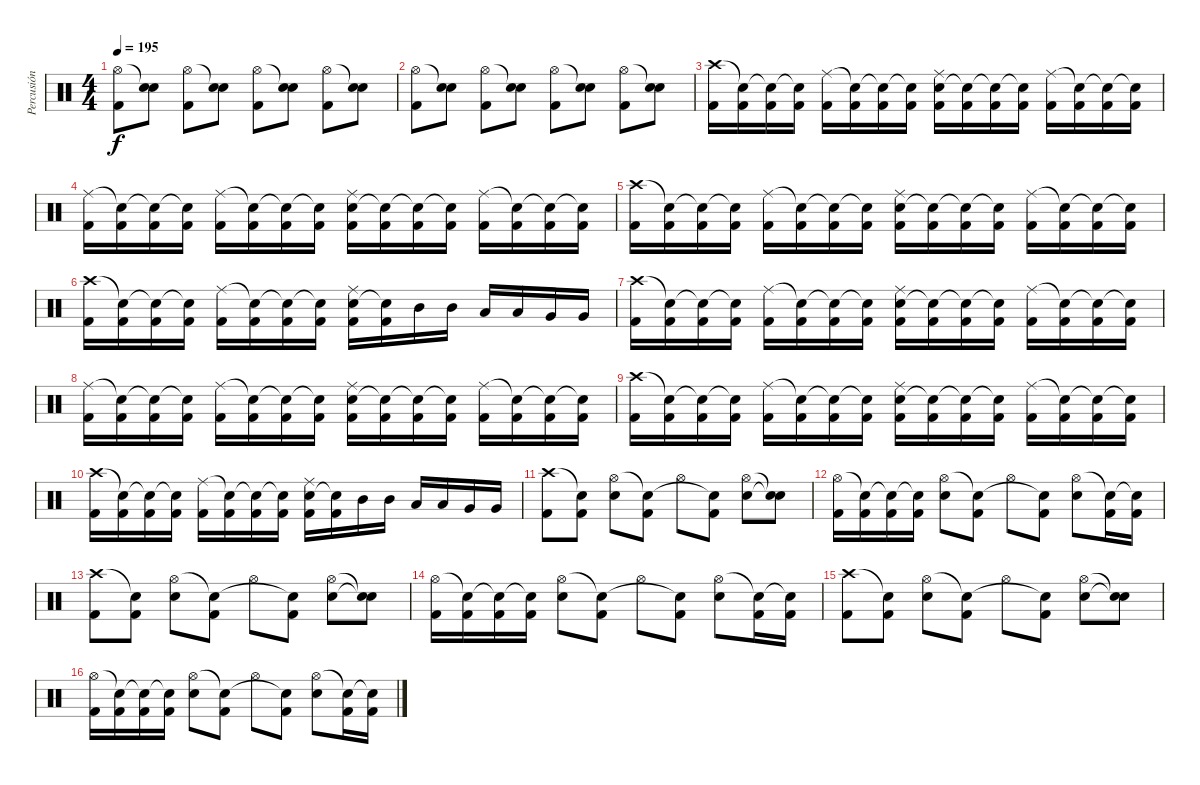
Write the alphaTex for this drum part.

\track ("Percusión" "Percusión") {instrument percussion}
\staff {score}
\articulation defaults
\ts (4 4)
\tempo 195
\clef neutral
\ks c
("Kick (hit) 2" "Hi-Hat (open)").8{dy f} ("Snare (hit) 2" "Snare (hit)"{t}).8 ("Kick (hit) 2" "Hi-Hat (open)").8 ("Snare (hit) 2" "Snare (hit)"{t}).8 ("Kick (hit) 2" "Hi-Hat (open)").8 ("Snare (hit) 2" "Snare (hit)"{t}).8 ("Kick (hit) 2" "Hi-Hat (open)").8 ("Snare (hit) 2" "Snare (hit)"{t}).8 |
("Kick (hit) 2" "Hi-Hat (open)").8 ("Snare (hit) 2" "Snare (hit)"{t}).8 ("Kick (hit) 2" "Hi-Hat (open)").8 ("Snare (hit) 2" "Snare (hit)"{t}).8 ("Kick (hit) 2" "Hi-Hat (open)").8 ("Snare (hit) 2" "Snare (hit)"{t}).8 ("Kick (hit) 2" "Hi-Hat (open)").8 ("Snare (hit) 2" "Snare (hit)"{t}).8 |
("Kick (hit) 2" "Crash high (hit)").16 ("Kick (hit) 2" "Snare (hit)"{t}).16 ("Kick (hit) 2" "Snare (hit)"{t}).16 ("Kick (hit) 2" "Snare (hit)"{t}).16 ("Kick (hit) 2" "Ride (middle)").16 ("Kick (hit) 2" "Snare (hit)"{t}).16 ("Kick (hit) 2" "Snare (hit)"{t}).16 ("Kick (hit) 2" "Snare (hit)"{t}).16 ("Kick (hit) 2" "Snare (hit) 2" "Ride (middle)").16 ("Kick (hit) 2" "Snare (hit)"{t}).16 ("Kick (hit) 2" "Snare (hit)"{t}).16 ("Kick (hit) 2" "Snare (hit)"{t}).16 ("Kick (hit) 2" "Ride (middle)").16 ("Kick (hit) 2" "Snare (hit)"{t}).16 ("Kick (hit) 2" "Snare (hit)"{t}).16 ("Kick (hit) 2" "Snare (hit)"{t}).16 |
("Kick (hit) 2" "Ride (middle)").16 ("Kick (hit) 2" "Snare (hit)"{t}).16 ("Kick (hit) 2" "Snare (hit)"{t}).16 ("Kick (hit) 2" "Snare (hit)"{t}).16 ("Kick (hit) 2" "Ride (middle)").16 ("Kick (hit) 2" "Snare (hit)"{t}).16 ("Kick (hit) 2" "Snare (hit)"{t}).16 ("Kick (hit) 2" "Snare (hit)"{t}).16 ("Kick (hit) 2" "Snare (hit) 2" "Ride (middle)").16 ("Kick (hit) 2" "Snare (hit)"{t}).16 ("Kick (hit) 2" "Snare (hit)"{t}).16 ("Kick (hit) 2" "Snare (hit)"{t}).16 ("Kick (hit) 2" "Ride (middle)").16 ("Kick (hit) 2" "Snare (hit)"{t}).16 ("Kick (hit) 2" "Snare (hit)"{t}).16 ("Kick (hit) 2" "Snare (hit)"{t}).16 |
("Kick (hit) 2" "Crash high (hit)").16 ("Kick (hit) 2" "Snare (hit)"{t}).16 ("Kick (hit) 2" "Snare (hit)"{t}).16 ("Kick (hit) 2" "Snare (hit)"{t}).16 ("Kick (hit) 2" "Ride (middle)").16 ("Kick (hit) 2" "Snare (hit)"{t}).16 ("Kick (hit) 2" "Snare (hit)"{t}).16 ("Kick (hit) 2" "Snare (hit)"{t}).16 ("Kick (hit) 2" "Snare (hit) 2" "Ride (middle)").16 ("Kick (hit) 2" "Snare (hit)"{t}).16 ("Kick (hit) 2" "Snare (hit)"{t}).16 ("Kick (hit) 2" "Snare (hit)"{t}).16 ("Kick (hit) 2" "Ride (middle)").16 ("Kick (hit) 2" "Snare (hit)"{t}).16 ("Kick (hit) 2" "Snare (hit)"{t}).16 ("Kick (hit) 2" "Snare (hit)"{t}).16 |
("Kick (hit) 2" "Crash high (hit)").16 ("Kick (hit) 2" "Snare (hit)"{t}).16 ("Kick (hit) 2" "Snare (hit)"{t}).16 ("Kick (hit) 2" "Snare (hit)"{t}).16 ("Kick (hit) 2" "Ride (middle)").16 ("Kick (hit) 2" "Snare (hit)"{t}).16 ("Kick (hit) 2" "Snare (hit)"{t}).16 ("Kick (hit) 2" "Snare (hit)"{t}).16 ("Kick (hit) 2" "Snare (hit) 2" "Ride (middle)").16 ("Kick (hit) 2" "Snare (hit)"{t}).16 "Mid Tom (hit)".16 "Mid Tom (hit)".16 "Low Tom (hit)".16 "Low Tom (hit)".16 "Very Low Tom (hit)".16 "Very Low Tom (hit)".16 |
("Kick (hit) 2" "Crash high (hit)").16 ("Kick (hit) 2" "Snare (hit)"{t}).16 ("Kick (hit) 2" "Snare (hit)"{t}).16 ("Kick (hit) 2" "Snare (hit)"{t}).16 ("Kick (hit) 2" "Ride (middle)").16 ("Kick (hit) 2" "Snare (hit)"{t}).16 ("Kick (hit) 2" "Snare (hit)"{t}).16 ("Kick (hit) 2" "Snare (hit)"{t}).16 ("Kick (hit) 2" "Snare (hit) 2" "Ride (middle)").16 ("Kick (hit) 2" "Snare (hit)"{t}).16 ("Kick (hit) 2" "Snare (hit)"{t}).16 ("Kick (hit) 2" "Snare (hit)"{t}).16 ("Kick (hit) 2" "Ride (middle)").16 ("Kick (hit) 2" "Snare (hit)"{t}).16 ("Kick (hit) 2" "Snare (hit)"{t}).16 ("Kick (hit) 2" "Snare (hit)"{t}).16 |
("Kick (hit) 2" "Ride (middle)").16 ("Kick (hit) 2" "Snare (hit)"{t}).16 ("Kick (hit) 2" "Snare (hit)"{t}).16 ("Kick (hit) 2" "Snare (hit)"{t}).16 ("Kick (hit) 2" "Ride (middle)").16 ("Kick (hit) 2" "Snare (hit)"{t}).16 ("Kick (hit) 2" "Snare (hit)"{t}).16 ("Kick (hit) 2" "Snare (hit)"{t}).16 ("Kick (hit) 2" "Snare (hit) 2" "Ride (middle)").16 ("Kick (hit) 2" "Snare (hit)"{t}).16 ("Kick (hit) 2" "Snare (hit)"{t}).16 ("Kick (hit) 2" "Snare (hit)"{t}).16 ("Kick (hit) 2" "Ride (middle)").16 ("Kick (hit) 2" "Snare (hit)"{t}).16 ("Kick (hit) 2" "Snare (hit)"{t}).16 ("Kick (hit) 2" "Snare (hit)"{t}).16 |
("Kick (hit) 2" "Crash high (hit)").16 ("Kick (hit) 2" "Snare (hit)"{t}).16 ("Kick (hit) 2" "Snare (hit)"{t}).16 ("Kick (hit) 2" "Snare (hit)"{t}).16 ("Kick (hit) 2" "Ride (middle)").16 ("Kick (hit) 2" "Snare (hit)"{t}).16 ("Kick (hit) 2" "Snare (hit)"{t}).16 ("Kick (hit) 2" "Snare (hit)"{t}).16 ("Kick (hit) 2" "Snare (hit) 2" "Ride (middle)").16 ("Kick (hit) 2" "Snare (hit)"{t}).16 ("Kick (hit) 2" "Snare (hit)"{t}).16 ("Kick (hit) 2" "Snare (hit)"{t}).16 ("Kick (hit) 2" "Ride (middle)").16 ("Kick (hit) 2" "Snare (hit)"{t}).16 ("Kick (hit) 2" "Snare (hit)"{t}).16 ("Kick (hit) 2" "Snare (hit)"{t}).16 |
("Kick (hit) 2" "Crash high (hit)").16 ("Kick (hit) 2" "Snare (hit)"{t}).16 ("Kick (hit) 2" "Snare (hit)"{t}).16 ("Kick (hit) 2" "Snare (hit)"{t}).16 ("Kick (hit) 2" "Ride (middle)").16 ("Kick (hit) 2" "Snare (hit)"{t}).16 ("Kick (hit) 2" "Snare (hit)"{t}).16 ("Kick (hit) 2" "Snare (hit)"{t}).16 ("Kick (hit) 2" "Snare (hit) 2" "Ride (middle)").16 ("Kick (hit) 2" "Snare (hit)"{t}).16 "Mid Tom (hit)".16 "Mid Tom (hit)".16 "Low Tom (hit)".16 "Low Tom (hit)".16 "Very Low Tom (hit)".16 "Very Low Tom (hit)".16 |
("Kick (hit) 2" "Crash high (hit)").8 ("Kick (hit) 2" "Snare (hit)"{t}).8 ("Snare (hit) 2" "Hi-Hat (open)").8 ("Kick (hit) 2" "Snare (hit)"{t}).8 "Hi-Hat (open)".8 ("Kick (hit) 2" "Snare (hit)"{t}).8 ("Snare (hit) 2" "Hi-Hat (open)").8 ("Snare (hit)"{t} "Snare (hit)"{t}).8 |
("Kick (hit) 2" "Hi-Hat (open)").16 ("Kick (hit) 2" "Snare (hit)"{t}).16 ("Kick (hit) 2" "Snare (hit)"{t}).16 ("Kick (hit) 2" "Snare (hit)"{t}).16 ("Snare (hit) 2" "Hi-Hat (open)").8 ("Kick (hit) 2" "Snare (hit)"{t}).8 "Hi-Hat (open)".8 ("Kick (hit) 2" "Snare (hit)"{t}).8 ("Snare (hit) 2" "Hi-Hat (open)").8 ("Kick (hit) 2" "Snare (hit)"{t}).16 ("Kick (hit) 2" "Snare (hit)"{t}).16 |
("Kick (hit) 2" "Crash high (hit)").8 ("Kick (hit) 2" "Snare (hit)"{t}).8 ("Snare (hit) 2" "Hi-Hat (open)").8 ("Kick (hit) 2" "Snare (hit)"{t}).8 "Hi-Hat (open)".8 ("Kick (hit) 2" "Snare (hit)"{t}).8 ("Snare (hit) 2" "Hi-Hat (open)").8 ("Snare (hit)"{t} "Snare (hit)"{t}).8 |
("Kick (hit) 2" "Hi-Hat (open)").16 ("Kick (hit) 2" "Snare (hit)"{t}).16 ("Kick (hit) 2" "Snare (hit)"{t}).16 ("Kick (hit) 2" "Snare (hit)"{t}).16 ("Snare (hit) 2" "Hi-Hat (open)").8 ("Kick (hit) 2" "Snare (hit)"{t}).8 "Hi-Hat (open)".8 ("Kick (hit) 2" "Snare (hit)"{t}).8 ("Snare (hit) 2" "Hi-Hat (open)").8 ("Kick (hit) 2" "Snare (hit)"{t}).16 ("Kick (hit) 2" "Snare (hit)"{t}).16 |
("Kick (hit) 2" "Crash high (hit)").8 ("Kick (hit) 2" "Snare (hit)"{t}).8 ("Snare (hit) 2" "Hi-Hat (open)").8 ("Kick (hit) 2" "Snare (hit)"{t}).8 "Hi-Hat (open)".8 ("Kick (hit) 2" "Snare (hit)"{t}).8 ("Snare (hit) 2" "Hi-Hat (open)").8 ("Snare (hit)"{t} "Snare (hit)"{t}).8 |
("Kick (hit) 2" "Hi-Hat (open)").16 ("Kick (hit) 2" "Snare (hit)"{t}).16 ("Kick (hit) 2" "Snare (hit)"{t}).16 ("Kick (hit) 2" "Snare (hit)"{t}).16 ("Snare (hit) 2" "Hi-Hat (open)").8 ("Kick (hit) 2" "Snare (hit)"{t}).8 "Hi-Hat (open)".8 ("Kick (hit) 2" "Snare (hit)"{t}).8 ("Snare (hit) 2" "Hi-Hat (open)").8 ("Kick (hit) 2" "Snare (hit)"{t}).16 ("Kick (hit) 2" "Snare (hit)"{t}).16
